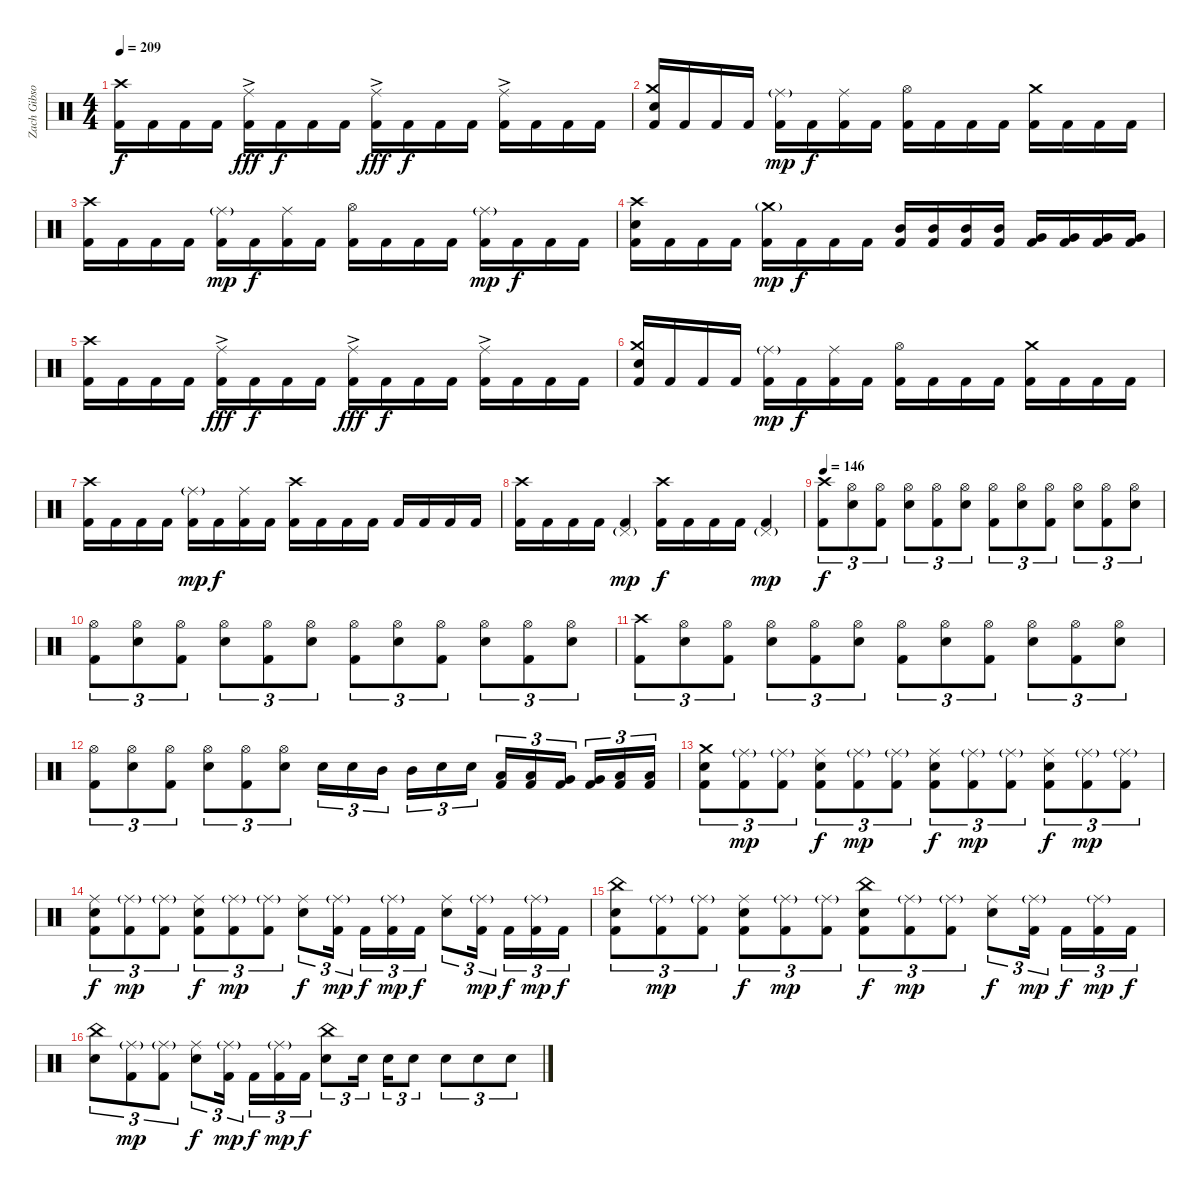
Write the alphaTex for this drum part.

\track ("Zach Gibson (Drums)" "Zach Gibso") {instrument percussion}
\staff {score}
\articulation defaults
\ts (4 4)
\tempo 209
\clef neutral
\ks c
("Crash high (hit)" "Kick (hit) 2").16{dy f} "Kick (hit) 2".16 "Kick (hit) 2".16 "Kick (hit) 2".16 ("Ride (middle)"{ac} "Kick (hit) 2").16{dy fff} "Kick (hit) 2".16{dy f} "Kick (hit) 2".16 "Kick (hit) 2".16 ("Ride (middle)"{ac} "Kick (hit) 2").16{dy fff} "Kick (hit) 2".16{dy f} "Kick (hit) 2".16 "Kick (hit) 2".16 ("Ride (middle)"{ac} "Kick (hit) 2").16 "Kick (hit) 2".16 "Kick (hit) 2".16 "Kick (hit) 2".16 |
("Crash medium (hit)" "Snare (hit) 2" "Kick (hit) 2").16 "Kick (hit) 2".16 "Kick (hit) 2".16 "Kick (hit) 2".16 ("Ride (middle)"{g} "Kick (hit) 2").16{dy mp} "Kick (hit) 2".16{dy f} ("Ride (middle)" "Kick (hit) 2").16 "Kick (hit) 2".16 ("Hi-Hat (open)" "Kick (hit) 2").16 "Kick (hit) 2".16 "Kick (hit) 2".16 "Kick (hit) 2".16 ("Crash medium (hit)" "Kick (hit) 2").16 "Kick (hit) 2".16 "Kick (hit) 2".16 "Kick (hit) 2".16 |
("Crash high (hit)" "Kick (hit) 2").16 "Kick (hit) 2".16 "Kick (hit) 2".16 "Kick (hit) 2".16 ("Ride (middle)"{g} "Kick (hit) 2").16{dy mp} "Kick (hit) 2".16{dy f} ("Ride (middle)" "Kick (hit) 2").16 "Kick (hit) 2".16 ("Hi-Hat (open)" "Kick (hit) 2").16 "Kick (hit) 2".16 "Kick (hit) 2".16 "Kick (hit) 2".16 ("Ride (middle)"{g} "Kick (hit) 2").16{dy mp} "Kick (hit) 2".16{dy f} "Kick (hit) 2".16 "Kick (hit) 2".16 |
("Snare (hit) 2" "Crash high (hit)" "Kick (hit) 2").16 "Kick (hit) 2".16 "Kick (hit) 2".16 "Kick (hit) 2".16 ("Crash medium (hit)"{g} "Kick (hit) 2").16{dy mp} "Kick (hit) 2".16{dy f} "Kick (hit) 2".16 "Kick (hit) 2".16 ("Mid Tom (hit)" "Kick (hit) 2").16 ("Mid Tom (hit)" "Kick (hit) 2").16 ("Mid Tom (hit)" "Kick (hit) 2").16 ("Mid Tom (hit)" "Kick (hit) 2").16 ("Very Low Tom (hit)" "Kick (hit) 2").16 ("Very Low Tom (hit)" "Kick (hit) 2").16 ("Very Low Tom (hit)" "Kick (hit) 2").16 ("Very Low Tom (hit)" "Kick (hit) 2").16 |
("Crash high (hit)" "Kick (hit) 2").16 "Kick (hit) 2".16 "Kick (hit) 2".16 "Kick (hit) 2".16 ("Ride (middle)"{ac} "Kick (hit) 2").16{dy fff} "Kick (hit) 2".16{dy f} "Kick (hit) 2".16 "Kick (hit) 2".16 ("Ride (middle)"{ac} "Kick (hit) 2").16{dy fff} "Kick (hit) 2".16{dy f} "Kick (hit) 2".16 "Kick (hit) 2".16 ("Ride (middle)"{ac} "Kick (hit) 2").16 "Kick (hit) 2".16 "Kick (hit) 2".16 "Kick (hit) 2".16 |
("Crash medium (hit)" "Snare (hit) 2" "Kick (hit) 2").16 "Kick (hit) 2".16 "Kick (hit) 2".16 "Kick (hit) 2".16 ("Ride (middle)"{g} "Kick (hit) 2").16{dy mp} "Kick (hit) 2".16{dy f} ("Ride (middle)" "Kick (hit) 2").16 "Kick (hit) 2".16 ("Hi-Hat (open)" "Kick (hit) 2").16 "Kick (hit) 2".16 "Kick (hit) 2".16 "Kick (hit) 2".16 ("Crash medium (hit)" "Kick (hit) 2").16 "Kick (hit) 2".16 "Kick (hit) 2".16 "Kick (hit) 2".16 |
("Crash high (hit)" "Kick (hit) 2").16 "Kick (hit) 2".16 "Kick (hit) 2".16 "Kick (hit) 2".16 ("Ride (middle)"{g} "Kick (hit) 2").16{dy mp} "Kick (hit) 2".16{dy f} ("Ride (middle)" "Kick (hit) 2").16 "Kick (hit) 2".16 ("Crash high (hit)" "Kick (hit) 2").16 "Kick (hit) 2".16 "Kick (hit) 2".16 "Kick (hit) 2".16 "Kick (hit) 2".16 "Kick (hit) 2".16 "Kick (hit) 2".16 "Kick (hit) 2".16 |
("Crash high (hit)" "Kick (hit) 2").16 "Kick (hit) 2".16 "Kick (hit) 2".16 "Kick (hit) 2".16 ("Pedal Hi-Hat (hit)"{g} "Kick (hit) 2").4{dy mp} ("Crash high (hit)" "Kick (hit) 2").16{dy f} "Kick (hit) 2".16 "Kick (hit) 2".16 "Kick (hit) 2".16 ("Pedal Hi-Hat (hit)"{g} "Kick (hit) 2").4{dy mp} |
\tempo 146
("Crash high (hit)" "Kick (hit) 2").8{tu (3 2) dy f} ("Hi-Hat (open)" "Snare (hit) 2").8{tu (3 2)} ("Hi-Hat (open)" "Kick (hit) 2").8{tu (3 2)} ("Hi-Hat (open)" "Snare (hit) 2").8{tu (3 2)} ("Hi-Hat (open)" "Kick (hit) 2").8{tu (3 2)} ("Hi-Hat (open)" "Snare (hit) 2").8{tu (3 2)} ("Hi-Hat (open)" "Kick (hit) 2").8{tu (3 2)} ("Hi-Hat (open)" "Snare (hit) 2").8{tu (3 2)} ("Hi-Hat (open)" "Kick (hit) 2").8{tu (3 2)} ("Hi-Hat (open)" "Snare (hit) 2").8{tu (3 2)} ("Hi-Hat (open)" "Kick (hit) 2").8{tu (3 2)} ("Hi-Hat (open)" "Snare (hit) 2").8{tu (3 2)} |
("Hi-Hat (open)" "Kick (hit) 2").8{tu (3 2)} ("Hi-Hat (open)" "Snare (hit) 2").8{tu (3 2)} ("Hi-Hat (open)" "Kick (hit) 2").8{tu (3 2)} ("Hi-Hat (open)" "Snare (hit) 2").8{tu (3 2)} ("Hi-Hat (open)" "Kick (hit) 2").8{tu (3 2)} ("Hi-Hat (open)" "Snare (hit) 2").8{tu (3 2)} ("Hi-Hat (open)" "Kick (hit) 2").8{tu (3 2)} ("Hi-Hat (open)" "Snare (hit) 2").8{tu (3 2)} ("Hi-Hat (open)" "Kick (hit) 2").8{tu (3 2)} ("Hi-Hat (open)" "Snare (hit) 2").8{tu (3 2)} ("Hi-Hat (open)" "Kick (hit) 2").8{tu (3 2)} ("Hi-Hat (open)" "Snare (hit) 2").8{tu (3 2)} |
("Crash high (hit)" "Kick (hit) 2").8{tu (3 2)} ("Hi-Hat (open)" "Snare (hit) 2").8{tu (3 2)} ("Hi-Hat (open)" "Kick (hit) 2").8{tu (3 2)} ("Hi-Hat (open)" "Snare (hit) 2").8{tu (3 2)} ("Hi-Hat (open)" "Kick (hit) 2").8{tu (3 2)} ("Hi-Hat (open)" "Snare (hit) 2").8{tu (3 2)} ("Hi-Hat (open)" "Kick (hit) 2").8{tu (3 2)} ("Hi-Hat (open)" "Snare (hit) 2").8{tu (3 2)} ("Hi-Hat (open)" "Kick (hit) 2").8{tu (3 2)} ("Hi-Hat (open)" "Snare (hit) 2").8{tu (3 2)} ("Hi-Hat (open)" "Kick (hit) 2").8{tu (3 2)} ("Hi-Hat (open)" "Snare (hit) 2").8{tu (3 2)} |
("Hi-Hat (open)" "Kick (hit) 2").8{tu (3 2)} ("Hi-Hat (open)" "Snare (hit) 2").8{tu (3 2)} ("Hi-Hat (open)" "Kick (hit) 2").8{tu (3 2)} ("Hi-Hat (open)" "Snare (hit) 2").8{tu (3 2)} ("Hi-Hat (open)" "Kick (hit) 2").8{tu (3 2)} ("Hi-Hat (open)" "Snare (hit) 2").8{tu (3 2)} "Snare (hit) 2".16{tu (3 2)} "Snare (hit) 2".16{tu (3 2)} "Mid Tom (hit)".16{tu (3 2)} "Mid Tom (hit)".16{tu (3 2)} "Snare (hit) 2".16{tu (3 2)} "Snare (hit) 2".16{tu (3 2)} ("Low Tom (hit)" "Kick (hit) 2").16{tu (3 2)} ("Low Tom (hit)" "Kick (hit) 2").16{tu (3 2)} ("Very Low Tom (hit)" "Kick (hit) 2").16{tu (3 2)} ("Very Low Tom (hit)" "Kick (hit) 2").16{tu (3 2)} ("Low Floor Tom (hit)" "Kick (hit) 2").16{tu (3 2)} ("Low Floor Tom (hit)" "Kick (hit) 2").16{tu (3 2)} |
("Crash medium (hit)" "Snare (hit) 2" "Kick (hit) 2").8{tu (3 2)} ("Ride (middle)"{g} "Kick (hit) 2").8{tu (3 2) dy mp} ("Ride (middle)"{g} "Kick (hit) 2").8{tu (3 2)} ("Ride (middle)" "Snare (hit) 2" "Kick (hit) 2").8{tu (3 2) dy f} ("Ride (middle)"{g} "Kick (hit) 2").8{tu (3 2) dy mp} ("Ride (middle)"{g} "Kick (hit) 2").8{tu (3 2)} ("Ride (middle)" "Snare (hit) 2" "Kick (hit) 2").8{tu (3 2) dy f} ("Ride (middle)"{g} "Kick (hit) 2").8{tu (3 2) dy mp} ("Ride (middle)"{g} "Kick (hit) 2").8{tu (3 2)} ("Ride (middle)" "Snare (hit) 2" "Kick (hit) 2").8{tu (3 2) dy f} ("Ride (middle)"{g} "Kick (hit) 2").8{tu (3 2) dy mp} ("Ride (middle)"{g} "Kick (hit) 2").8{tu (3 2)} |
("Ride (middle)" "Snare (hit) 2" "Kick (hit) 2").8{tu (3 2) dy f} ("Ride (middle)"{g} "Kick (hit) 2").8{tu (3 2) dy mp} ("Ride (middle)"{g} "Kick (hit) 2").8{tu (3 2)} ("Ride (middle)" "Snare (hit) 2" "Kick (hit) 2").8{tu (3 2) dy f} ("Ride (middle)"{g} "Kick (hit) 2").8{tu (3 2) dy mp} ("Ride (middle)"{g} "Kick (hit) 2").8{tu (3 2)} ("Ride (middle)" "Snare (hit) 2").8{tu (3 2) dy f} ("Ride (middle)"{g} "Kick (hit) 2").16{tu (3 2) dy mp} "Kick (hit) 2".16{tu (3 2) dy f} ("Ride (middle)"{g} "Kick (hit) 2").16{tu (3 2) dy mp} "Kick (hit) 2".16{tu (3 2) dy f} ("Ride (middle)" "Snare (hit) 2").8{tu (3 2)} ("Ride (middle)"{g} "Kick (hit) 2").16{tu (3 2) dy mp} "Kick (hit) 2".16{tu (3 2) dy f} ("Ride (middle)"{g} "Kick (hit) 2").16{tu (3 2) dy mp} "Kick (hit) 2".16{tu (3 2) dy f} |
("China (hit)" "Snare (hit) 2" "Kick (hit) 2").8{tu (3 2)} ("Ride (middle)"{g} "Kick (hit) 2").8{tu (3 2) dy mp} ("Ride (middle)"{g} "Kick (hit) 2").8{tu (3 2)} ("Ride (middle)" "Snare (hit) 2" "Kick (hit) 2").8{tu (3 2) dy f} ("Ride (middle)"{g} "Kick (hit) 2").8{tu (3 2) dy mp} ("Ride (middle)"{g} "Kick (hit) 2").8{tu (3 2)} ("China (hit)" "Snare (hit) 2" "Kick (hit) 2").8{tu (3 2) dy f} ("Ride (middle)"{g} "Kick (hit) 2").8{tu (3 2) dy mp} ("Ride (middle)"{g} "Kick (hit) 2").8{tu (3 2)} ("Ride (middle)" "Snare (hit) 2").8{tu (3 2) dy f} ("Ride (middle)"{g} "Kick (hit) 2").16{tu (3 2) dy mp} "Kick (hit) 2".16{tu (3 2) dy f} ("Ride (middle)"{g} "Kick (hit) 2").16{tu (3 2) dy mp} "Kick (hit) 2".16{tu (3 2) dy f} |
("China (hit)" "Snare (hit) 2").8{tu (3 2)} ("Ride (middle)"{g} "Kick (hit) 2").8{tu (3 2) dy mp} ("Ride (middle)"{g} "Kick (hit) 2").8{tu (3 2)} ("Ride (middle)" "Snare (hit) 2").8{tu (3 2) dy f} ("Ride (middle)"{g} "Kick (hit) 2").16{tu (3 2) dy mp} "Kick (hit) 2".16{tu (3 2) dy f} ("Ride (middle)"{g} "Kick (hit) 2").16{tu (3 2) dy mp} "Kick (hit) 2".16{tu (3 2) dy f} ("China (hit)" "Snare (hit) 2").8{tu (3 2)} "Snare (hit) 2".16{tu (3 2)} "Snare (hit) 2".16{tu (3 2)} "Snare (hit) 2".8{tu (3 2)} "Snare (hit) 2".8{tu (3 2)} "Snare (hit) 2".8{tu (3 2)} "Snare (hit) 2".8{tu (3 2)}
